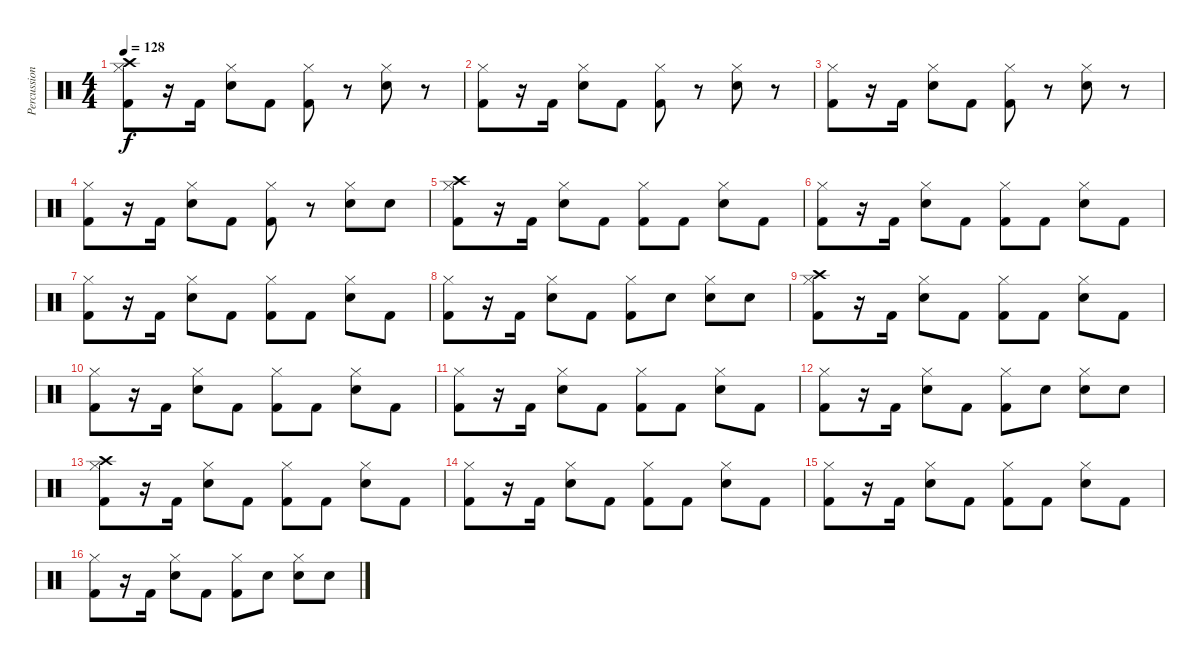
\track ("Percussion" "Percussion") {instrument percussion}
\staff {score}
\articulation defaults
\ts (4 4)
\tempo 128
\clef neutral
\ks c
("Crash high (hit)" "Hi-Hat (closed)" "Kick (hit) 2").8{dy f} r.16 "Kick (hit) 2".16 ("Hi-Hat (closed)" "Snare (hit) 2").8 "Kick (hit) 2".8 ("Hi-Hat (closed)" "Kick (hit) 2").8 r.8 ("Hi-Hat (closed)" "Snare (hit) 2").8 r.8 |
("Hi-Hat (closed)" "Kick (hit) 2").8 r.16 "Kick (hit) 2".16 ("Hi-Hat (closed)" "Snare (hit) 2").8 "Kick (hit) 2".8 ("Hi-Hat (closed)" "Kick (hit) 2").8 r.8 ("Hi-Hat (closed)" "Snare (hit) 2").8 r.8 |
("Hi-Hat (closed)" "Kick (hit) 2").8 r.16 "Kick (hit) 2".16 ("Hi-Hat (closed)" "Snare (hit) 2").8 "Kick (hit) 2".8 ("Hi-Hat (closed)" "Kick (hit) 2").8 r.8 ("Hi-Hat (closed)" "Snare (hit) 2").8 r.8 |
("Hi-Hat (closed)" "Kick (hit) 2").8 r.16 "Kick (hit) 2".16 ("Hi-Hat (closed)" "Snare (hit) 2").8 "Kick (hit) 2".8 ("Hi-Hat (closed)" "Kick (hit) 2").8 r.8 ("Hi-Hat (closed)" "Snare (hit) 2").8 "Snare (hit) 2".8 |
("Crash high (hit)" "Hi-Hat (closed)" "Kick (hit) 2").8 r.16 "Kick (hit) 2".16 ("Hi-Hat (closed)" "Snare (hit) 2").8 "Kick (hit) 2".8 ("Hi-Hat (closed)" "Kick (hit) 2").8 "Kick (hit) 2".8 ("Hi-Hat (closed)" "Snare (hit) 2").8 "Kick (hit) 2".8 |
("Hi-Hat (closed)" "Kick (hit) 2").8 r.16 "Kick (hit) 2".16 ("Hi-Hat (closed)" "Snare (hit) 2").8 "Kick (hit) 2".8 ("Hi-Hat (closed)" "Kick (hit) 2").8 "Kick (hit) 2".8 ("Hi-Hat (closed)" "Snare (hit) 2").8 "Kick (hit) 2".8 |
("Hi-Hat (closed)" "Kick (hit) 2").8 r.16 "Kick (hit) 2".16 ("Hi-Hat (closed)" "Snare (hit) 2").8 "Kick (hit) 2".8 ("Hi-Hat (closed)" "Kick (hit) 2").8 "Kick (hit) 2".8 ("Hi-Hat (closed)" "Snare (hit) 2").8 "Kick (hit) 2".8 |
("Hi-Hat (closed)" "Kick (hit) 2").8 r.16 "Kick (hit) 2".16 ("Hi-Hat (closed)" "Snare (hit) 2").8 "Kick (hit) 2".8 ("Hi-Hat (closed)" "Kick (hit) 2").8 "Snare (hit) 2".8 ("Hi-Hat (closed)" "Snare (hit) 2").8 "Snare (hit) 2".8 |
("Crash high (hit)" "Hi-Hat (closed)" "Kick (hit) 2").8 r.16 "Kick (hit) 2".16 ("Hi-Hat (closed)" "Snare (hit) 2").8 "Kick (hit) 2".8 ("Hi-Hat (closed)" "Kick (hit) 2").8 "Kick (hit) 2".8 ("Hi-Hat (closed)" "Snare (hit) 2").8 "Kick (hit) 2".8 |
("Hi-Hat (closed)" "Kick (hit) 2").8 r.16 "Kick (hit) 2".16 ("Hi-Hat (closed)" "Snare (hit) 2").8 "Kick (hit) 2".8 ("Hi-Hat (closed)" "Kick (hit) 2").8 "Kick (hit) 2".8 ("Hi-Hat (closed)" "Snare (hit) 2").8 "Kick (hit) 2".8 |
("Hi-Hat (closed)" "Kick (hit) 2").8 r.16 "Kick (hit) 2".16 ("Hi-Hat (closed)" "Snare (hit) 2").8 "Kick (hit) 2".8 ("Hi-Hat (closed)" "Kick (hit) 2").8 "Kick (hit) 2".8 ("Hi-Hat (closed)" "Snare (hit) 2").8 "Kick (hit) 2".8 |
("Hi-Hat (closed)" "Kick (hit) 2").8 r.16 "Kick (hit) 2".16 ("Hi-Hat (closed)" "Snare (hit) 2").8 "Kick (hit) 2".8 ("Hi-Hat (closed)" "Kick (hit) 2").8 "Snare (hit) 2".8 ("Hi-Hat (closed)" "Snare (hit) 2").8 "Snare (hit) 2".8 |
("Crash high (hit)" "Hi-Hat (closed)" "Kick (hit) 2").8 r.16 "Kick (hit) 2".16 ("Hi-Hat (closed)" "Snare (hit) 2").8 "Kick (hit) 2".8 ("Hi-Hat (closed)" "Kick (hit) 2").8 "Kick (hit) 2".8 ("Hi-Hat (closed)" "Snare (hit) 2").8 "Kick (hit) 2".8 |
("Hi-Hat (closed)" "Kick (hit) 2").8 r.16 "Kick (hit) 2".16 ("Hi-Hat (closed)" "Snare (hit) 2").8 "Kick (hit) 2".8 ("Hi-Hat (closed)" "Kick (hit) 2").8 "Kick (hit) 2".8 ("Hi-Hat (closed)" "Snare (hit) 2").8 "Kick (hit) 2".8 |
("Hi-Hat (closed)" "Kick (hit) 2").8 r.16 "Kick (hit) 2".16 ("Hi-Hat (closed)" "Snare (hit) 2").8 "Kick (hit) 2".8 ("Hi-Hat (closed)" "Kick (hit) 2").8 "Kick (hit) 2".8 ("Hi-Hat (closed)" "Snare (hit) 2").8 "Kick (hit) 2".8 |
("Hi-Hat (closed)" "Kick (hit) 2").8 r.16 "Kick (hit) 2".16 ("Hi-Hat (closed)" "Snare (hit) 2").8 "Kick (hit) 2".8 ("Hi-Hat (closed)" "Kick (hit) 2").8 "Snare (hit) 2".8 ("Hi-Hat (closed)" "Snare (hit) 2").8 "Snare (hit) 2".8
